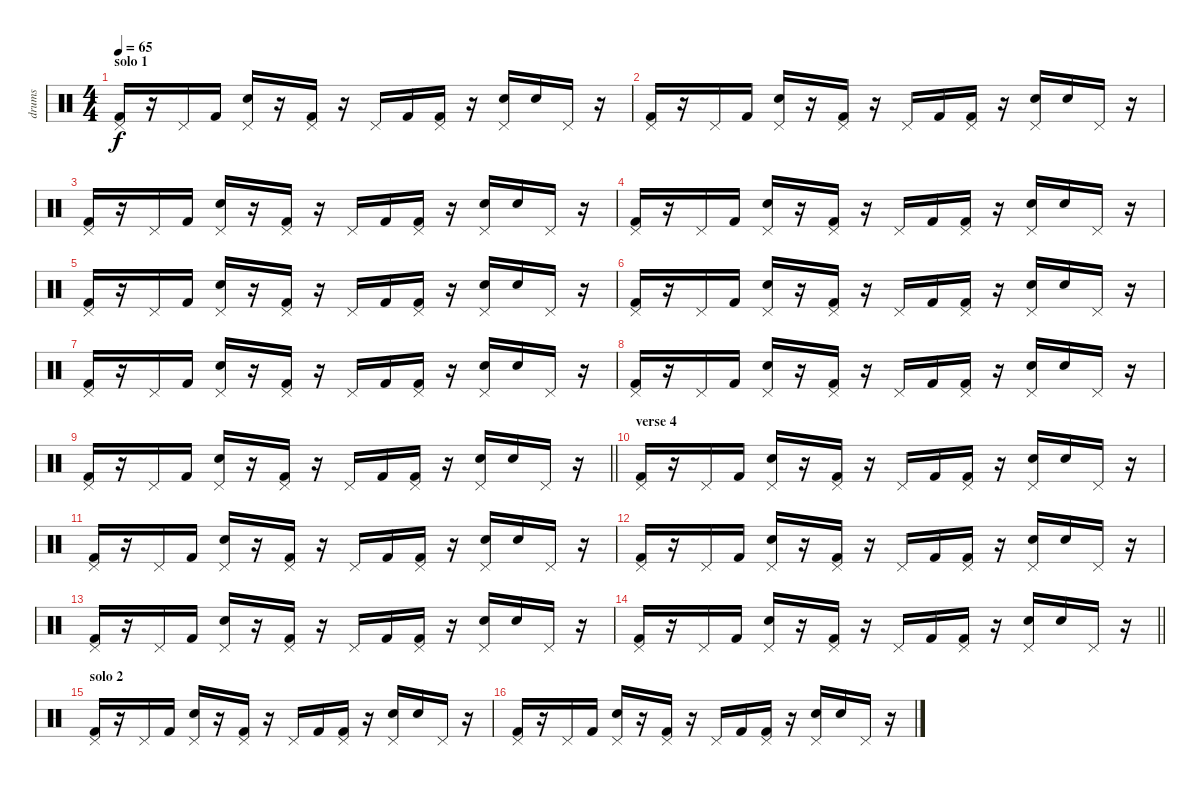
\track ("drums" "drums") {instrument percussion}
\staff {score}
\articulation defaults
\ts (4 4)
\section ("" "solo 1")
\tempo 65
\clef neutral
\ks c
("Kick (hit) 2" "Pedal Hi-Hat (hit)").16{dy f} r.16 "Pedal Hi-Hat (hit)".16 "Kick (hit) 2".16 ("Electric Snare (hit)" "Pedal Hi-Hat (hit)").16 r.16 ("Kick (hit) 2" "Pedal Hi-Hat (hit)").16 r.16 "Pedal Hi-Hat (hit)".16 "Kick (hit) 2".16 ("Kick (hit) 2" "Pedal Hi-Hat (hit)").16 r.16 ("Electric Snare (hit)" "Pedal Hi-Hat (hit)").16 "Electric Snare (hit)".16 "Pedal Hi-Hat (hit)".16 r.16 |
("Kick (hit) 2" "Pedal Hi-Hat (hit)").16 r.16 "Pedal Hi-Hat (hit)".16 "Kick (hit) 2".16 ("Electric Snare (hit)" "Pedal Hi-Hat (hit)").16 r.16 ("Kick (hit) 2" "Pedal Hi-Hat (hit)").16 r.16 "Pedal Hi-Hat (hit)".16 "Kick (hit) 2".16 ("Kick (hit) 2" "Pedal Hi-Hat (hit)").16 r.16 ("Electric Snare (hit)" "Pedal Hi-Hat (hit)").16 "Electric Snare (hit)".16 "Pedal Hi-Hat (hit)".16 r.16 |
("Kick (hit) 2" "Pedal Hi-Hat (hit)").16 r.16 "Pedal Hi-Hat (hit)".16 "Kick (hit) 2".16 ("Electric Snare (hit)" "Pedal Hi-Hat (hit)").16 r.16 ("Kick (hit) 2" "Pedal Hi-Hat (hit)").16 r.16 "Pedal Hi-Hat (hit)".16 "Kick (hit) 2".16 ("Kick (hit) 2" "Pedal Hi-Hat (hit)").16 r.16 ("Electric Snare (hit)" "Pedal Hi-Hat (hit)").16 "Electric Snare (hit)".16 "Pedal Hi-Hat (hit)".16 r.16 |
("Kick (hit) 2" "Pedal Hi-Hat (hit)").16 r.16 "Pedal Hi-Hat (hit)".16 "Kick (hit) 2".16 ("Electric Snare (hit)" "Pedal Hi-Hat (hit)").16 r.16 ("Kick (hit) 2" "Pedal Hi-Hat (hit)").16 r.16 "Pedal Hi-Hat (hit)".16 "Kick (hit) 2".16 ("Kick (hit) 2" "Pedal Hi-Hat (hit)").16 r.16 ("Electric Snare (hit)" "Pedal Hi-Hat (hit)").16 "Electric Snare (hit)".16 "Pedal Hi-Hat (hit)".16 r.16 |
("Kick (hit) 2" "Pedal Hi-Hat (hit)").16 r.16 "Pedal Hi-Hat (hit)".16 "Kick (hit) 2".16 ("Electric Snare (hit)" "Pedal Hi-Hat (hit)").16 r.16 ("Kick (hit) 2" "Pedal Hi-Hat (hit)").16 r.16 "Pedal Hi-Hat (hit)".16 "Kick (hit) 2".16 ("Kick (hit) 2" "Pedal Hi-Hat (hit)").16 r.16 ("Electric Snare (hit)" "Pedal Hi-Hat (hit)").16 "Electric Snare (hit)".16 "Pedal Hi-Hat (hit)".16 r.16 |
("Kick (hit) 2" "Pedal Hi-Hat (hit)").16 r.16 "Pedal Hi-Hat (hit)".16 "Kick (hit) 2".16 ("Electric Snare (hit)" "Pedal Hi-Hat (hit)").16 r.16 ("Kick (hit) 2" "Pedal Hi-Hat (hit)").16 r.16 "Pedal Hi-Hat (hit)".16 "Kick (hit) 2".16 ("Kick (hit) 2" "Pedal Hi-Hat (hit)").16 r.16 ("Electric Snare (hit)" "Pedal Hi-Hat (hit)").16 "Electric Snare (hit)".16 "Pedal Hi-Hat (hit)".16 r.16 |
("Kick (hit) 2" "Pedal Hi-Hat (hit)").16 r.16 "Pedal Hi-Hat (hit)".16 "Kick (hit) 2".16 ("Electric Snare (hit)" "Pedal Hi-Hat (hit)").16 r.16 ("Kick (hit) 2" "Pedal Hi-Hat (hit)").16 r.16 "Pedal Hi-Hat (hit)".16 "Kick (hit) 2".16 ("Kick (hit) 2" "Pedal Hi-Hat (hit)").16 r.16 ("Electric Snare (hit)" "Pedal Hi-Hat (hit)").16 "Electric Snare (hit)".16 "Pedal Hi-Hat (hit)".16 r.16 |
("Kick (hit) 2" "Pedal Hi-Hat (hit)").16 r.16 "Pedal Hi-Hat (hit)".16 "Kick (hit) 2".16 ("Electric Snare (hit)" "Pedal Hi-Hat (hit)").16 r.16 ("Kick (hit) 2" "Pedal Hi-Hat (hit)").16 r.16 "Pedal Hi-Hat (hit)".16 "Kick (hit) 2".16 ("Kick (hit) 2" "Pedal Hi-Hat (hit)").16 r.16 ("Electric Snare (hit)" "Pedal Hi-Hat (hit)").16 "Electric Snare (hit)".16 "Pedal Hi-Hat (hit)".16 r.16 |
\barLineRight lightlight
("Kick (hit) 2" "Pedal Hi-Hat (hit)").16 r.16 "Pedal Hi-Hat (hit)".16 "Kick (hit) 2".16 ("Electric Snare (hit)" "Pedal Hi-Hat (hit)").16 r.16 ("Kick (hit) 2" "Pedal Hi-Hat (hit)").16 r.16 "Pedal Hi-Hat (hit)".16 "Kick (hit) 2".16 ("Kick (hit) 2" "Pedal Hi-Hat (hit)").16 r.16 ("Electric Snare (hit)" "Pedal Hi-Hat (hit)").16 "Electric Snare (hit)".16 "Pedal Hi-Hat (hit)".16 r.16 |
\section ("" "verse 4")
("Kick (hit) 2" "Pedal Hi-Hat (hit)").16 r.16 "Pedal Hi-Hat (hit)".16 "Kick (hit) 2".16 ("Electric Snare (hit)" "Pedal Hi-Hat (hit)").16 r.16 ("Kick (hit) 2" "Pedal Hi-Hat (hit)").16 r.16 "Pedal Hi-Hat (hit)".16 "Kick (hit) 2".16 ("Kick (hit) 2" "Pedal Hi-Hat (hit)").16 r.16 ("Electric Snare (hit)" "Pedal Hi-Hat (hit)").16 "Electric Snare (hit)".16 "Pedal Hi-Hat (hit)".16 r.16 |
("Kick (hit) 2" "Pedal Hi-Hat (hit)").16 r.16 "Pedal Hi-Hat (hit)".16 "Kick (hit) 2".16 ("Electric Snare (hit)" "Pedal Hi-Hat (hit)").16 r.16 ("Kick (hit) 2" "Pedal Hi-Hat (hit)").16 r.16 "Pedal Hi-Hat (hit)".16 "Kick (hit) 2".16 ("Kick (hit) 2" "Pedal Hi-Hat (hit)").16 r.16 ("Electric Snare (hit)" "Pedal Hi-Hat (hit)").16 "Electric Snare (hit)".16 "Pedal Hi-Hat (hit)".16 r.16 |
("Kick (hit) 2" "Pedal Hi-Hat (hit)").16 r.16 "Pedal Hi-Hat (hit)".16 "Kick (hit) 2".16 ("Electric Snare (hit)" "Pedal Hi-Hat (hit)").16 r.16 ("Kick (hit) 2" "Pedal Hi-Hat (hit)").16 r.16 "Pedal Hi-Hat (hit)".16 "Kick (hit) 2".16 ("Kick (hit) 2" "Pedal Hi-Hat (hit)").16 r.16 ("Electric Snare (hit)" "Pedal Hi-Hat (hit)").16 "Electric Snare (hit)".16 "Pedal Hi-Hat (hit)".16 r.16 |
("Kick (hit) 2" "Pedal Hi-Hat (hit)").16 r.16 "Pedal Hi-Hat (hit)".16 "Kick (hit) 2".16 ("Electric Snare (hit)" "Pedal Hi-Hat (hit)").16 r.16 ("Kick (hit) 2" "Pedal Hi-Hat (hit)").16 r.16 "Pedal Hi-Hat (hit)".16 "Kick (hit) 2".16 ("Kick (hit) 2" "Pedal Hi-Hat (hit)").16 r.16 ("Electric Snare (hit)" "Pedal Hi-Hat (hit)").16 "Electric Snare (hit)".16 "Pedal Hi-Hat (hit)".16 r.16 |
\barLineRight lightlight
("Kick (hit) 2" "Pedal Hi-Hat (hit)").16 r.16 "Pedal Hi-Hat (hit)".16 "Kick (hit) 2".16 ("Electric Snare (hit)" "Pedal Hi-Hat (hit)").16 r.16 ("Kick (hit) 2" "Pedal Hi-Hat (hit)").16 r.16 "Pedal Hi-Hat (hit)".16 "Kick (hit) 2".16 ("Kick (hit) 2" "Pedal Hi-Hat (hit)").16 r.16 ("Electric Snare (hit)" "Pedal Hi-Hat (hit)").16 "Electric Snare (hit)".16 "Pedal Hi-Hat (hit)".16 r.16 |
\section ("" "solo 2")
("Kick (hit) 2" "Pedal Hi-Hat (hit)").16 r.16 "Pedal Hi-Hat (hit)".16 "Kick (hit) 2".16 ("Electric Snare (hit)" "Pedal Hi-Hat (hit)").16 r.16 ("Kick (hit) 2" "Pedal Hi-Hat (hit)").16 r.16 "Pedal Hi-Hat (hit)".16 "Kick (hit) 2".16 ("Kick (hit) 2" "Pedal Hi-Hat (hit)").16 r.16 ("Electric Snare (hit)" "Pedal Hi-Hat (hit)").16 "Electric Snare (hit)".16 "Pedal Hi-Hat (hit)".16 r.16 |
("Kick (hit) 2" "Pedal Hi-Hat (hit)").16 r.16 "Pedal Hi-Hat (hit)".16 "Kick (hit) 2".16 ("Electric Snare (hit)" "Pedal Hi-Hat (hit)").16 r.16 ("Kick (hit) 2" "Pedal Hi-Hat (hit)").16 r.16 "Pedal Hi-Hat (hit)".16 "Kick (hit) 2".16 ("Kick (hit) 2" "Pedal Hi-Hat (hit)").16 r.16 ("Electric Snare (hit)" "Pedal Hi-Hat (hit)").16 "Electric Snare (hit)".16 "Pedal Hi-Hat (hit)".16 r.16
